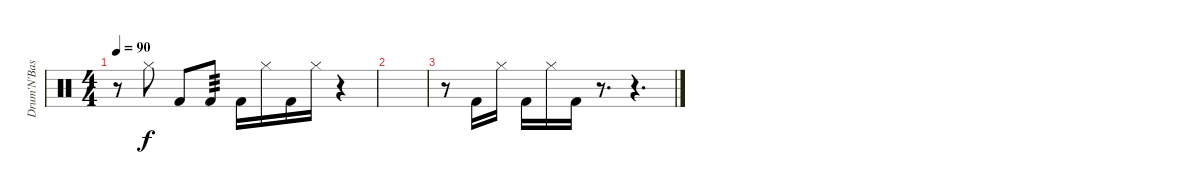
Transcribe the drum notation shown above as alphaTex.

\track ("Drum'N'Base Effects" "Drum'N'Bas") {instrument percussion}
\staff {score}
\articulation defaults
\ts (4 4)
\tempo 90
\clef neutral
\ks c
r.8{dy f} "Hi-Hat (closed)".8 "Kick (hit) 2".8 "Kick (hit) 2".8{tp 3} "Kick (hit) 2".16 "Hi-Hat (closed)".16 "Kick (hit) 2".16 "Hi-Hat (closed)".16 r.4 |
|
r.8 "Kick (hit) 2".16 "Hi-Hat (closed)".16 "Kick (hit) 2".16 "Hi-Hat (closed)".16 "Kick (hit) 2".16 r.8{d} r.4{d}
